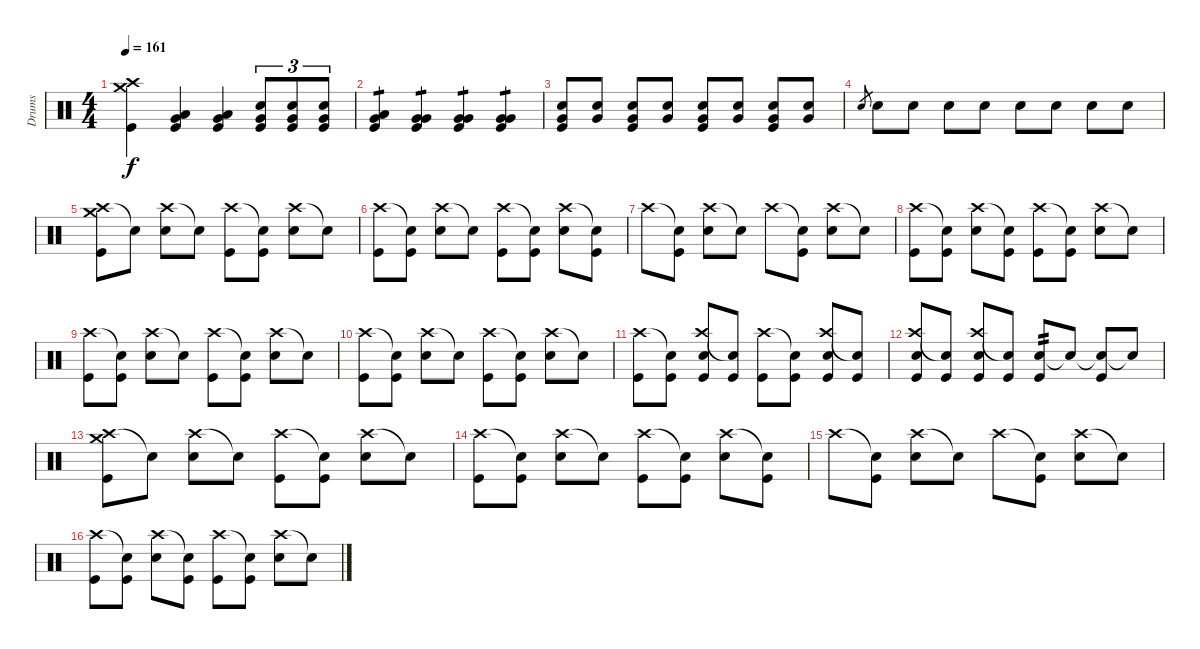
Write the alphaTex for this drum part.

\track ("Drums" "Drums") {instrument percussion}
\staff {score}
\articulation defaults
\ts (4 4)
\tempo 161
\clef neutral
\ks c
("Kick (hit)" "Crash medium (hit)" "Crash high (hit)").4{dy f} ("Kick (hit)" "Very Low Tom (hit)" "Low Tom (hit)").4 ("Kick (hit)" "Very Low Tom (hit)" "Low Tom (hit)").4 ("Kick (hit)" "Very Low Tom (hit)" "Snare (hit) 2").8{tu (3 2)} ("Kick (hit)" "Very Low Tom (hit)" "Snare (hit) 2").8{tu (3 2)} ("Kick (hit)" "Very Low Tom (hit)" "Snare (hit) 2").8{tu (3 2)} |
("Kick (hit)" "Very Low Tom (hit)" "Low Tom (hit)").4{tp 1} ("Very Low Tom (hit)" "Very Low Tom (hit)" "Kick (hit)").4{tp 1} ("Very Low Tom (hit)" "Very Low Tom (hit)" "Kick (hit)").4{tp 1} ("Very Low Tom (hit)" "Very Low Tom (hit)" "Kick (hit)").4{tp 1} |
("Very Low Tom (hit)" "Snare (hit) 2" "Kick (hit)").8 ("Very Low Tom (hit)" "Snare (hit) 2").8 ("Very Low Tom (hit)" "Snare (hit) 2" "Kick (hit)").8 ("Very Low Tom (hit)" "Snare (hit) 2").8 ("Very Low Tom (hit)" "Snare (hit) 2" "Kick (hit)").8 ("Very Low Tom (hit)" "Snare (hit) 2").8 ("Very Low Tom (hit)" "Snare (hit) 2" "Kick (hit)").8 ("Very Low Tom (hit)" "Snare (hit) 2").8 |
"Snare (hit) 2".8{gr} "Snare (hit) 2".8 "Snare (hit) 2".8 "Snare (hit) 2".8 "Snare (hit) 2".8 "Snare (hit) 2".8 "Snare (hit) 2".8 "Snare (hit) 2".8 "Snare (hit) 2".8 |
("Crash high (hit)" "Crash medium (hit)" "Kick (hit)").8 "Snare (hit)"{t}.8 ("Crash high (hit)" "Snare (hit) 2").8 "Snare (hit)"{t}.8 ("Crash high (hit)" "Kick (hit)").8 ("Snare (hit)"{t} "Kick (hit)").8 ("Crash high (hit)" "Snare (hit) 2").8 "Snare (hit)"{t}.8 |
("Crash high (hit)" "Kick (hit)").8 ("Snare (hit)"{t} "Kick (hit)").8 ("Crash high (hit)" "Snare (hit) 2").8 "Snare (hit)"{t}.8 ("Crash high (hit)" "Kick (hit)").8 ("Snare (hit)"{t} "Kick (hit)").8 ("Crash high (hit)" "Snare (hit) 2").8 ("Snare (hit)"{t} "Kick (hit)").8 |
"Crash high (hit)".8 ("Snare (hit)"{t} "Kick (hit)").8 ("Crash high (hit)" "Snare (hit) 2").8 "Snare (hit)"{t}.8 "Crash high (hit)".8 ("Snare (hit)"{t} "Kick (hit)").8 ("Crash high (hit)" "Snare (hit) 2").8 "Snare (hit)"{t}.8 |
("Crash high (hit)" "Kick (hit)").8 ("Snare (hit)"{t} "Kick (hit)").8 ("Crash high (hit)" "Snare (hit) 2").8 ("Snare (hit)"{t} "Kick (hit)").8 ("Crash high (hit)" "Kick (hit)").8 ("Snare (hit)"{t} "Kick (hit)").8 ("Crash high (hit)" "Snare (hit) 2").8 "Snare (hit)"{t}.8 |
("Crash high (hit)" "Kick (hit)").8 ("Snare (hit)"{t} "Kick (hit)").8 ("Crash high (hit)" "Snare (hit) 2").8 "Snare (hit)"{t}.8 ("Crash high (hit)" "Kick (hit)").8 ("Snare (hit)"{t} "Kick (hit)").8 ("Crash high (hit)" "Snare (hit) 2").8 "Snare (hit)"{t}.8 |
("Crash high (hit)" "Kick (hit)").8 ("Snare (hit)"{t} "Kick (hit)").8 ("Crash high (hit)" "Snare (hit) 2").8 "Snare (hit)"{t}.8 ("Crash high (hit)" "Kick (hit)").8 ("Snare (hit)"{t} "Kick (hit)").8 ("Crash high (hit)" "Snare (hit) 2").8 "Snare (hit)"{t}.8 |
("Crash high (hit)" "Kick (hit)").8 ("Snare (hit)"{t} "Kick (hit)").8 ("Crash high (hit)" "Snare (hit) 2" "Kick (hit)").8 ("Snare (hit)"{t} "Kick (hit)").8 ("Crash high (hit)" "Kick (hit)").8 ("Snare (hit)"{t} "Kick (hit)").8 ("Crash high (hit)" "Snare (hit) 2" "Kick (hit)").8 ("Snare (hit)"{t} "Kick (hit)").8 |
("Crash high (hit)" "Snare (hit) 2" "Kick (hit)").8 ("Snare (hit)"{t} "Kick (hit)").8 ("Crash high (hit)" "Snare (hit) 2" "Kick (hit)").8 ("Snare (hit)"{t} "Kick (hit)").8 ("Snare (hit) 2" "Kick (hit)").8{tp 2} "Snare (hit)"{t}.8 ("Snare (hit)"{t} "Kick (hit)").8 "Snare (hit)"{t}.8 |
("Crash high (hit)" "Crash medium (hit)" "Kick (hit)").8 "Snare (hit)"{t}.8 ("Crash high (hit)" "Snare (hit) 2").8 "Snare (hit)"{t}.8 ("Crash high (hit)" "Kick (hit)").8 ("Snare (hit)"{t} "Kick (hit)").8 ("Crash high (hit)" "Snare (hit) 2").8 "Snare (hit)"{t}.8 |
("Crash high (hit)" "Kick (hit)").8 ("Snare (hit)"{t} "Kick (hit)").8 ("Crash high (hit)" "Snare (hit) 2").8 "Snare (hit)"{t}.8 ("Crash high (hit)" "Kick (hit)").8 ("Snare (hit)"{t} "Kick (hit)").8 ("Crash high (hit)" "Snare (hit) 2").8 ("Snare (hit)"{t} "Kick (hit)").8 |
"Crash high (hit)".8 ("Snare (hit)"{t} "Kick (hit)").8 ("Crash high (hit)" "Snare (hit) 2").8 "Snare (hit)"{t}.8 "Crash high (hit)".8 ("Snare (hit)"{t} "Kick (hit)").8 ("Crash high (hit)" "Snare (hit) 2").8 "Snare (hit)"{t}.8 |
("Crash high (hit)" "Kick (hit)").8 ("Snare (hit)"{t} "Kick (hit)").8 ("Crash high (hit)" "Snare (hit) 2").8 ("Snare (hit)"{t} "Kick (hit)").8 ("Crash high (hit)" "Kick (hit)").8 ("Snare (hit)"{t} "Kick (hit)").8 ("Crash high (hit)" "Snare (hit) 2").8 "Snare (hit)"{t}.8
